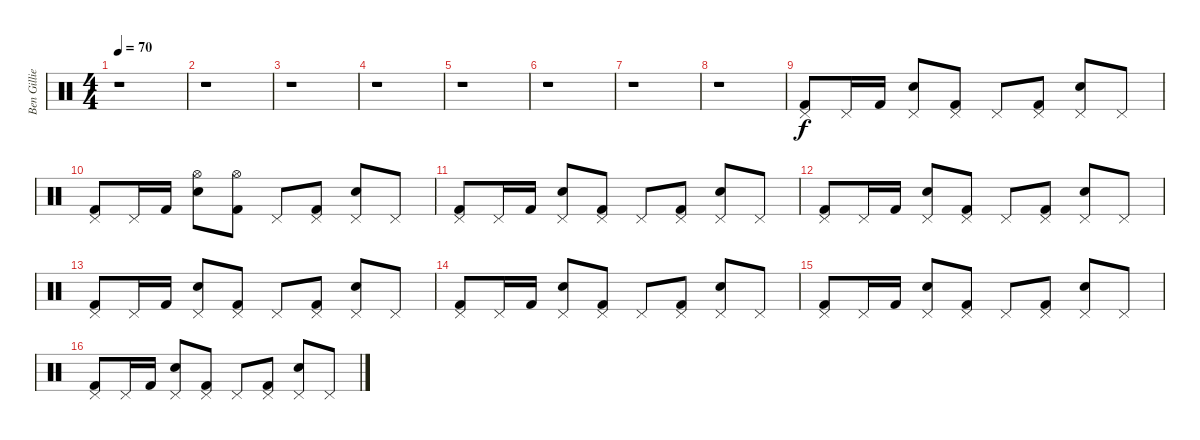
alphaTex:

\track ("Ben Gillies" "Ben Gillie") {instrument percussion}
\staff {score}
\articulation defaults
\ts (4 4)
\tempo 70
\clef neutral
\ks c
r.1{dy f} |
r.1 |
r.1 |
r.1 |
r.1 |
r.1 |
r.1 |
r.1 |
("Pedal Hi-Hat (hit)" "Kick (hit) 2").8 "Pedal Hi-Hat (hit)".16 "Kick (hit) 2".16 ("Pedal Hi-Hat (hit)" "Electric Snare (hit)").8 ("Pedal Hi-Hat (hit)" "Kick (hit) 2").8 "Pedal Hi-Hat (hit)".8 ("Pedal Hi-Hat (hit)" "Kick (hit) 2").8 ("Pedal Hi-Hat (hit)" "Electric Snare (hit)").8 "Pedal Hi-Hat (hit)".8 |
("Pedal Hi-Hat (hit)" "Kick (hit) 2").8 "Pedal Hi-Hat (hit)".16 "Kick (hit) 2".16 ("Hi-Hat (open)" "Electric Snare (hit)").8 ("Hi-Hat (open)" "Kick (hit) 2").8 "Pedal Hi-Hat (hit)".8 ("Pedal Hi-Hat (hit)" "Kick (hit) 2").8 ("Pedal Hi-Hat (hit)" "Electric Snare (hit)").8 "Pedal Hi-Hat (hit)".8 |
("Pedal Hi-Hat (hit)" "Kick (hit) 2").8 "Pedal Hi-Hat (hit)".16 "Kick (hit) 2".16 ("Pedal Hi-Hat (hit)" "Electric Snare (hit)").8 ("Pedal Hi-Hat (hit)" "Kick (hit) 2").8 "Pedal Hi-Hat (hit)".8 ("Pedal Hi-Hat (hit)" "Kick (hit) 2").8 ("Pedal Hi-Hat (hit)" "Electric Snare (hit)").8 "Pedal Hi-Hat (hit)".8 |
("Pedal Hi-Hat (hit)" "Kick (hit) 2").8 "Pedal Hi-Hat (hit)".16 "Kick (hit) 2".16 ("Pedal Hi-Hat (hit)" "Electric Snare (hit)").8 ("Pedal Hi-Hat (hit)" "Kick (hit) 2").8 "Pedal Hi-Hat (hit)".8 ("Pedal Hi-Hat (hit)" "Kick (hit) 2").8 ("Pedal Hi-Hat (hit)" "Electric Snare (hit)").8 "Pedal Hi-Hat (hit)".8 |
("Pedal Hi-Hat (hit)" "Kick (hit) 2").8 "Pedal Hi-Hat (hit)".16 "Kick (hit) 2".16 ("Pedal Hi-Hat (hit)" "Electric Snare (hit)").8 ("Pedal Hi-Hat (hit)" "Kick (hit) 2").8 "Pedal Hi-Hat (hit)".8 ("Pedal Hi-Hat (hit)" "Kick (hit) 2").8 ("Pedal Hi-Hat (hit)" "Electric Snare (hit)").8 "Pedal Hi-Hat (hit)".8 |
("Pedal Hi-Hat (hit)" "Kick (hit) 2").8 "Pedal Hi-Hat (hit)".16 "Kick (hit) 2".16 ("Pedal Hi-Hat (hit)" "Electric Snare (hit)").8 ("Pedal Hi-Hat (hit)" "Kick (hit) 2").8 "Pedal Hi-Hat (hit)".8 ("Pedal Hi-Hat (hit)" "Kick (hit) 2").8 ("Pedal Hi-Hat (hit)" "Electric Snare (hit)").8 "Pedal Hi-Hat (hit)".8 |
("Pedal Hi-Hat (hit)" "Kick (hit) 2").8 "Pedal Hi-Hat (hit)".16 "Kick (hit) 2".16 ("Pedal Hi-Hat (hit)" "Electric Snare (hit)").8 ("Pedal Hi-Hat (hit)" "Kick (hit) 2").8 "Pedal Hi-Hat (hit)".8 ("Pedal Hi-Hat (hit)" "Kick (hit) 2").8 ("Pedal Hi-Hat (hit)" "Electric Snare (hit)").8 "Pedal Hi-Hat (hit)".8 |
("Pedal Hi-Hat (hit)" "Kick (hit) 2").8 "Pedal Hi-Hat (hit)".16 "Kick (hit) 2".16 ("Pedal Hi-Hat (hit)" "Electric Snare (hit)").8 ("Pedal Hi-Hat (hit)" "Kick (hit) 2").8 "Pedal Hi-Hat (hit)".8 ("Pedal Hi-Hat (hit)" "Kick (hit) 2").8 ("Pedal Hi-Hat (hit)" "Electric Snare (hit)").8 "Pedal Hi-Hat (hit)".8
